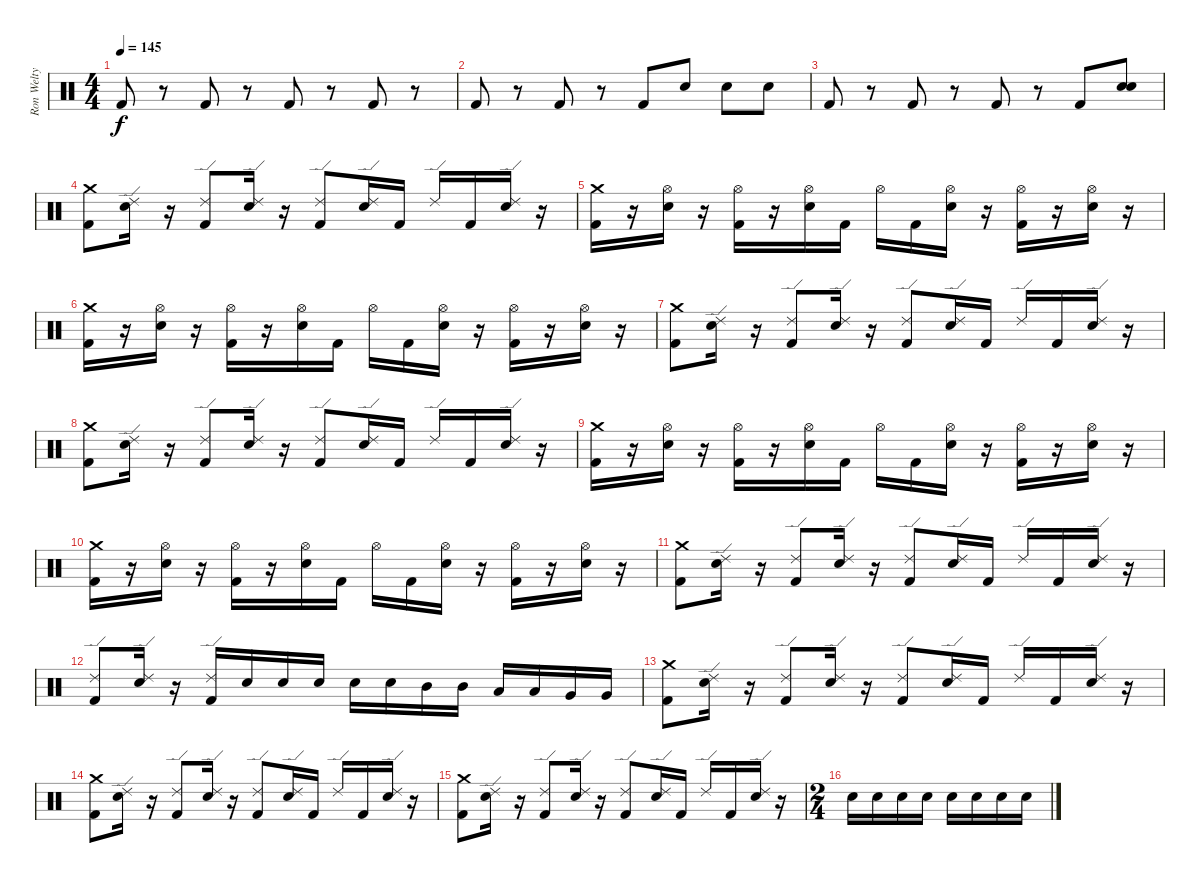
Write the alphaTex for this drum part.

\track ("Ron Welty" "Ron Welty") {instrument percussion}
\staff {score}
\articulation defaults
\ts (4 4)
\tempo 145
\clef neutral
\ks c "Kick (hit) 2".8{dy f}
r.8 "Kick (hit) 2".8 r.8 "Kick (hit) 2".8 r.8 "Kick (hit) 2".8 r.8 |
"Kick (hit) 2".8 r.8 "Kick (hit) 2".8 r.8 "Kick (hit) 2".8 "Snare (hit) 2".8 "Snare (hit) 2".8 "Snare (hit) 2".8 |
"Kick (hit) 2".8 r.8 "Kick (hit) 2".8 r.8 "Kick (hit) 2".8 r.8 "Kick (hit) 2".8 ("Snare (hit) 2" "Snare (hit) 2").8 |
("Kick (hit) 2" "Crash medium (hit)").8 ("Snare (hit) 2" "Ride (edge) 2").16 r.16 ("Kick (hit) 2" "Ride (edge) 2").8 ("Snare (hit) 2" "Ride (edge) 2").16 r.16 ("Kick (hit) 2" "Ride (edge) 2").8 ("Snare (hit) 2" "Ride (edge) 2").16 "Kick (hit) 2".16 "Ride (edge) 2".16 "Kick (hit) 2".16 ("Snare (hit) 2" "Ride (edge) 2").16 r.16 |
("Kick (hit) 2" "Crash medium (hit)").16 r.16 ("Hi-Hat (open)" "Snare (hit) 2").16 r.16 ("Hi-Hat (open)" "Kick (hit) 2").16 r.16 ("Hi-Hat (open)" "Snare (hit) 2").16 "Kick (hit) 2".16 "Hi-Hat (open)".16 "Kick (hit) 2".16 ("Hi-Hat (open)" "Snare (hit) 2").16 r.16 ("Hi-Hat (open)" "Kick (hit) 2").16 r.16 ("Hi-Hat (open)" "Snare (hit) 2").16 r.16 |
("Kick (hit) 2" "Crash medium (hit)").16 r.16 ("Hi-Hat (open)" "Snare (hit) 2").16 r.16 ("Hi-Hat (open)" "Kick (hit) 2").16 r.16 ("Hi-Hat (open)" "Snare (hit) 2").16 "Kick (hit) 2".16 "Hi-Hat (open)".16 "Kick (hit) 2".16 ("Hi-Hat (open)" "Snare (hit) 2").16 r.16 ("Hi-Hat (open)" "Kick (hit) 2").16 r.16 ("Hi-Hat (open)" "Snare (hit) 2").16 r.16 |
("Kick (hit) 2" "Crash medium (hit)").8 ("Snare (hit) 2" "Ride (edge) 2").16 r.16 ("Kick (hit) 2" "Ride (edge) 2").8 ("Snare (hit) 2" "Ride (edge) 2").16 r.16 ("Kick (hit) 2" "Ride (edge) 2").8 ("Snare (hit) 2" "Ride (edge) 2").16 "Kick (hit) 2".16 "Ride (edge) 2".16 "Kick (hit) 2".16 ("Snare (hit) 2" "Ride (edge) 2").16 r.16 |
("Kick (hit) 2" "Crash medium (hit)").8 ("Snare (hit) 2" "Ride (edge) 2").16 r.16 ("Kick (hit) 2" "Ride (edge) 2").8 ("Snare (hit) 2" "Ride (edge) 2").16 r.16 ("Kick (hit) 2" "Ride (edge) 2").8 ("Snare (hit) 2" "Ride (edge) 2").16 "Kick (hit) 2".16 "Ride (edge) 2".16 "Kick (hit) 2".16 ("Snare (hit) 2" "Ride (edge) 2").16 r.16 |
("Kick (hit) 2" "Crash medium (hit)").16 r.16 ("Hi-Hat (open)" "Snare (hit) 2").16 r.16 ("Hi-Hat (open)" "Kick (hit) 2").16 r.16 ("Hi-Hat (open)" "Snare (hit) 2").16 "Kick (hit) 2".16 "Hi-Hat (open)".16 "Kick (hit) 2".16 ("Hi-Hat (open)" "Snare (hit) 2").16 r.16 ("Hi-Hat (open)" "Kick (hit) 2").16 r.16 ("Hi-Hat (open)" "Snare (hit) 2").16 r.16 |
("Kick (hit) 2" "Crash medium (hit)").16 r.16 ("Hi-Hat (open)" "Snare (hit) 2").16 r.16 ("Hi-Hat (open)" "Kick (hit) 2").16 r.16 ("Hi-Hat (open)" "Snare (hit) 2").16 "Kick (hit) 2".16 "Hi-Hat (open)".16 "Kick (hit) 2".16 ("Hi-Hat (open)" "Snare (hit) 2").16 r.16 ("Hi-Hat (open)" "Kick (hit) 2").16 r.16 ("Hi-Hat (open)" "Snare (hit) 2").16 r.16 |
("Kick (hit) 2" "Crash medium (hit)").8 ("Snare (hit) 2" "Ride (edge) 2").16 r.16 ("Kick (hit) 2" "Ride (edge) 2").8 ("Snare (hit) 2" "Ride (edge) 2").16 r.16 ("Kick (hit) 2" "Ride (edge) 2").8 ("Snare (hit) 2" "Ride (edge) 2").16 "Kick (hit) 2".16 "Ride (edge) 2".16 "Kick (hit) 2".16 ("Snare (hit) 2" "Ride (edge) 2").16 r.16 |
("Kick (hit) 2" "Ride (edge) 2").8 ("Snare (hit) 2" "Ride (edge) 2").16 r.16 ("Kick (hit) 2" "Ride (edge) 2").16 "Snare (hit) 2".16 "Snare (hit) 2".16 "Snare (hit) 2".16 "Snare (hit) 2".16 "Snare (hit) 2".16 "Mid Tom (hit)".16 "Mid Tom (hit)".16 "Low Tom (hit)".16 "Low Tom (hit)".16 "Very Low Tom (hit)".16 "Very Low Tom (hit)".16 |
("Kick (hit) 2" "Crash medium (hit)").8 ("Snare (hit) 2" "Ride (edge) 2").16 r.16 ("Kick (hit) 2" "Ride (edge) 2").8 ("Snare (hit) 2" "Ride (edge) 2").16 r.16 ("Kick (hit) 2" "Ride (edge) 2").8 ("Snare (hit) 2" "Ride (edge) 2").16 "Kick (hit) 2".16 "Ride (edge) 2".16 "Kick (hit) 2".16 ("Snare (hit) 2" "Ride (edge) 2").16 r.16 |
("Kick (hit) 2" "Crash medium (hit)").8 ("Snare (hit) 2" "Ride (edge) 2").16 r.16 ("Kick (hit) 2" "Ride (edge) 2").8 ("Snare (hit) 2" "Ride (edge) 2").16 r.16 ("Kick (hit) 2" "Ride (edge) 2").8 ("Snare (hit) 2" "Ride (edge) 2").16 "Kick (hit) 2".16 "Ride (edge) 2".16 "Kick (hit) 2".16 ("Snare (hit) 2" "Ride (edge) 2").16 r.16 |
("Kick (hit) 2" "Crash medium (hit)").8 ("Snare (hit) 2" "Ride (edge) 2").16 r.16 ("Kick (hit) 2" "Ride (edge) 2").8 ("Snare (hit) 2" "Ride (edge) 2").16 r.16 ("Kick (hit) 2" "Ride (edge) 2").8 ("Snare (hit) 2" "Ride (edge) 2").16 "Kick (hit) 2".16 "Ride (edge) 2".16 "Kick (hit) 2".16 ("Snare (hit) 2" "Ride (edge) 2").16 r.16 |
\ts (2 4)
"Snare (hit) 2".16 "Snare (hit) 2".16 "Snare (hit) 2".16 "Snare (hit) 2".16 "Snare (hit) 2".16 "Snare (hit) 2".16 "Snare (hit) 2".16 "Snare (hit) 2".16
